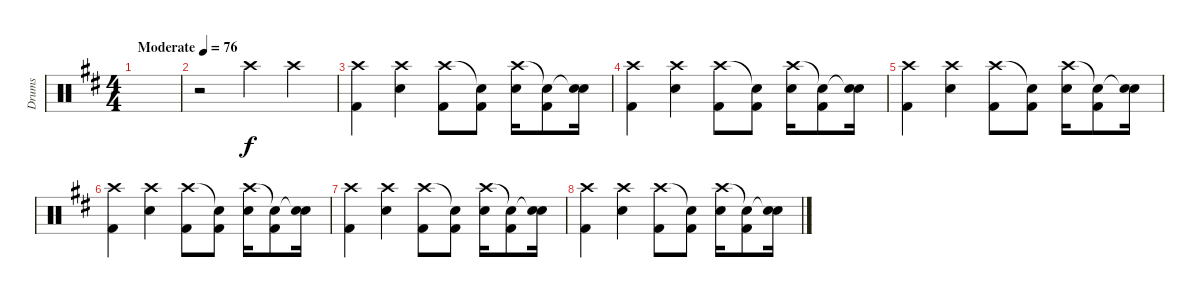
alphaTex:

\track ("Drums" "Drums") {instrument percussion}
\staff {score}
\articulation defaults
\ts (4 4)
\tempo (76 "Moderate")
\clef neutral
\ks bminor
|
r.2 "Crash high (hit)".4 "Crash high (hit)".4 |
("Crash high (hit)" "Kick (hit) 2").4{volume 8} ("Crash high (hit)" "Electric Snare (hit)").4 ("Crash high (hit)" "Kick (hit) 2").8 ("Snare (hit)"{t} "Kick (hit) 2").8 ("Crash high (hit)" "Electric Snare (hit)").16 ("Snare (hit)"{t} "Kick (hit) 2").8 ("Snare (hit)"{t} "Electric Snare (hit)").16 |
("Crash high (hit)" "Kick (hit) 2").4 ("Crash high (hit)" "Electric Snare (hit)").4 ("Crash high (hit)" "Kick (hit) 2").8 ("Snare (hit)"{t} "Kick (hit) 2").8 ("Crash high (hit)" "Electric Snare (hit)").16 ("Snare (hit)"{t} "Kick (hit) 2").8 ("Snare (hit)"{t} "Electric Snare (hit)").16 |
("Crash high (hit)" "Kick (hit) 2").4 ("Crash high (hit)" "Electric Snare (hit)").4 ("Crash high (hit)" "Kick (hit) 2").8 ("Snare (hit)"{t} "Kick (hit) 2").8 ("Crash high (hit)" "Electric Snare (hit)").16 ("Snare (hit)"{t} "Kick (hit) 2").8 ("Snare (hit)"{t} "Electric Snare (hit)").16 |
("Crash high (hit)" "Kick (hit) 2").4 ("Crash high (hit)" "Electric Snare (hit)").4 ("Crash high (hit)" "Kick (hit) 2").8 ("Snare (hit)"{t} "Kick (hit) 2").8 ("Crash high (hit)" "Electric Snare (hit)").16 ("Snare (hit)"{t} "Kick (hit) 2").8 ("Snare (hit)"{t} "Electric Snare (hit)").16 |
("Crash high (hit)" "Kick (hit) 2").4 ("Crash high (hit)" "Electric Snare (hit)").4 ("Crash high (hit)" "Kick (hit) 2").8 ("Snare (hit)"{t} "Kick (hit) 2").8 ("Crash high (hit)" "Electric Snare (hit)").16 ("Snare (hit)"{t} "Kick (hit) 2").8 ("Snare (hit)"{t} "Electric Snare (hit)").16 |
("Crash high (hit)" "Kick (hit) 2").4 ("Crash high (hit)" "Electric Snare (hit)").4 ("Crash high (hit)" "Kick (hit) 2").8 ("Snare (hit)"{t} "Kick (hit) 2").8 ("Crash high (hit)" "Electric Snare (hit)").16 ("Snare (hit)"{t} "Kick (hit) 2").8 ("Snare (hit)"{t} "Electric Snare (hit)").16
